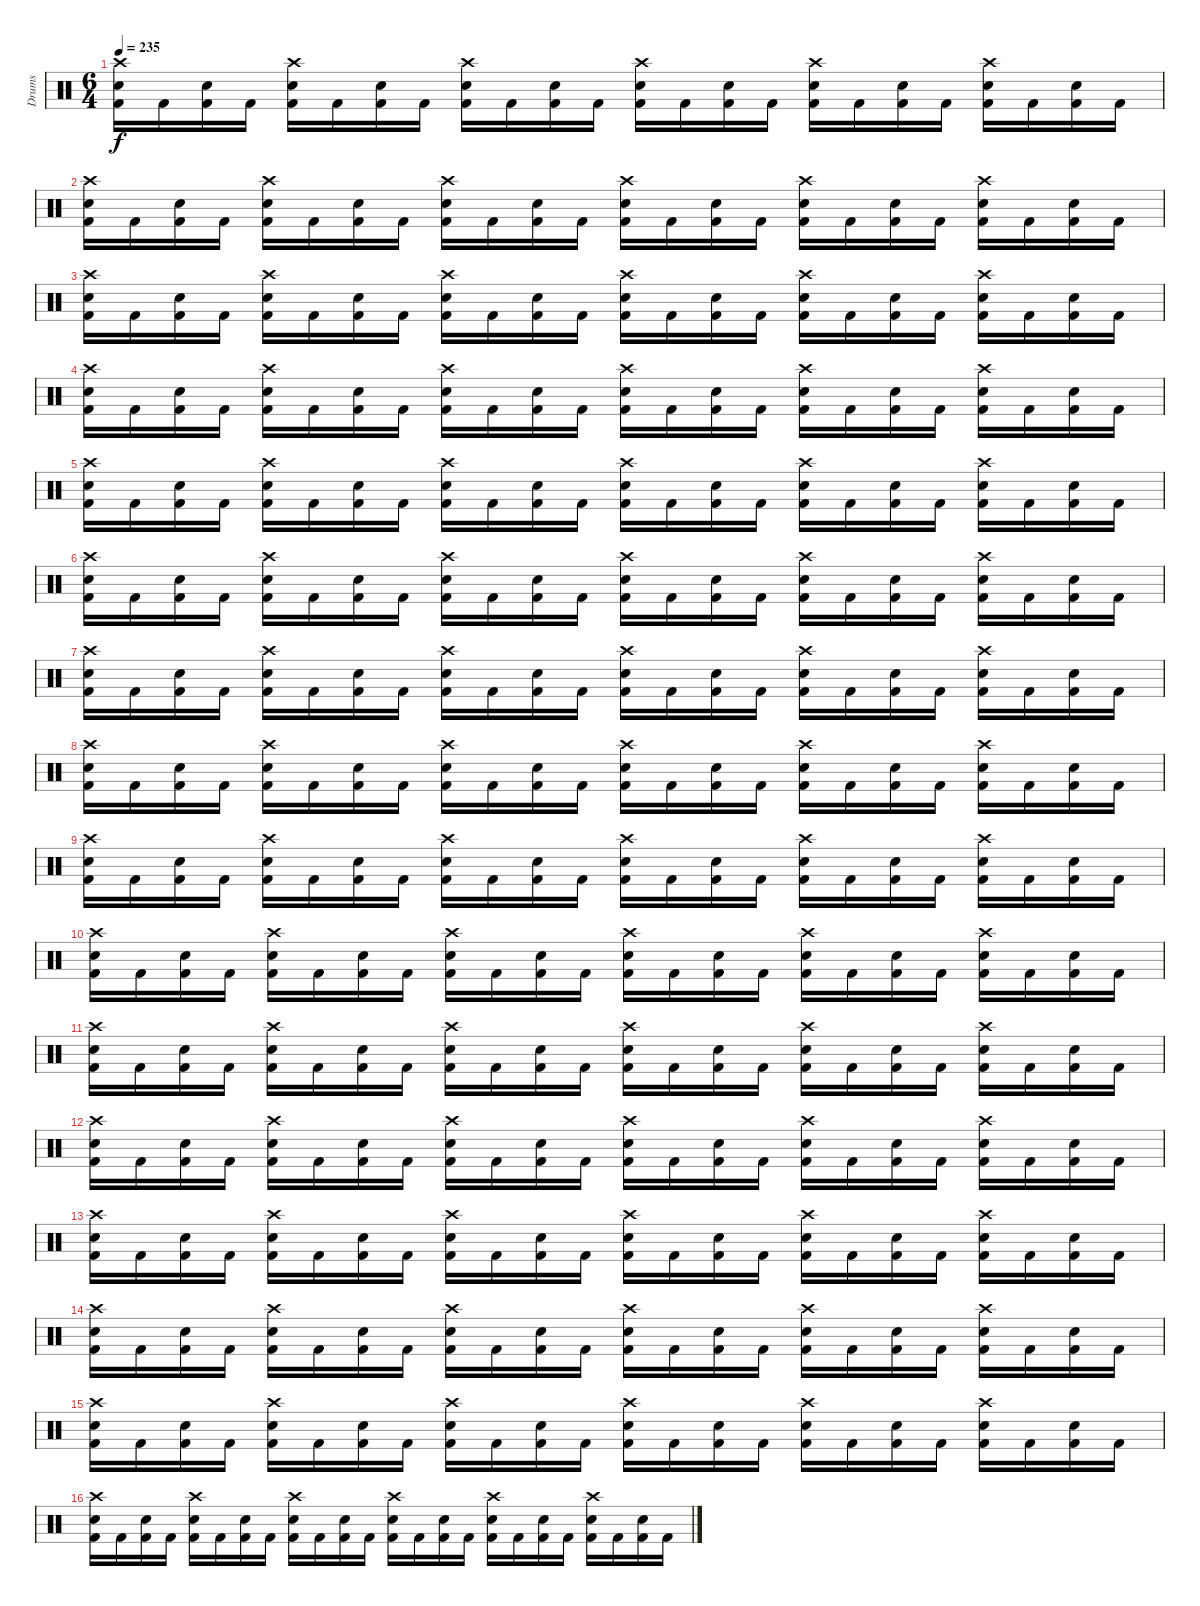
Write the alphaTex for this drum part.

\track ("Drums" "Drums") {instrument percussion}
\staff {score}
\articulation defaults
\ts (6 4)
\tempo 235
\clef neutral
\ks c
("Kick (hit) 2" "Snare (hit) 2" "Crash high (hit)").16{dy f} "Kick (hit) 2".16 ("Kick (hit) 2" "Snare (hit) 2").16 "Kick (hit) 2".16 ("Kick (hit) 2" "Snare (hit) 2" "Crash high (hit)").16 "Kick (hit) 2".16 ("Kick (hit) 2" "Snare (hit) 2").16 "Kick (hit) 2".16 ("Kick (hit) 2" "Snare (hit) 2" "Crash high (hit)").16 "Kick (hit) 2".16 ("Kick (hit) 2" "Snare (hit) 2").16 "Kick (hit) 2".16 ("Kick (hit) 2" "Snare (hit) 2" "Crash high (hit)").16 "Kick (hit) 2".16 ("Kick (hit) 2" "Snare (hit) 2").16 "Kick (hit) 2".16 ("Kick (hit) 2" "Snare (hit) 2" "Crash high (hit)").16 "Kick (hit) 2".16 ("Kick (hit) 2" "Snare (hit) 2").16 "Kick (hit) 2".16 ("Kick (hit) 2" "Snare (hit) 2" "Crash high (hit)").16 "Kick (hit) 2".16 ("Kick (hit) 2" "Snare (hit) 2").16 "Kick (hit) 2".16 |
("Kick (hit) 2" "Snare (hit) 2" "Crash high (hit)").16 "Kick (hit) 2".16 ("Kick (hit) 2" "Snare (hit) 2").16 "Kick (hit) 2".16 ("Kick (hit) 2" "Snare (hit) 2" "Crash high (hit)").16 "Kick (hit) 2".16 ("Kick (hit) 2" "Snare (hit) 2").16 "Kick (hit) 2".16 ("Kick (hit) 2" "Snare (hit) 2" "Crash high (hit)").16 "Kick (hit) 2".16 ("Kick (hit) 2" "Snare (hit) 2").16 "Kick (hit) 2".16 ("Kick (hit) 2" "Snare (hit) 2" "Crash high (hit)").16 "Kick (hit) 2".16 ("Kick (hit) 2" "Snare (hit) 2").16 "Kick (hit) 2".16 ("Kick (hit) 2" "Snare (hit) 2" "Crash high (hit)").16 "Kick (hit) 2".16 ("Kick (hit) 2" "Snare (hit) 2").16 "Kick (hit) 2".16 ("Kick (hit) 2" "Snare (hit) 2" "Crash high (hit)").16 "Kick (hit) 2".16 ("Kick (hit) 2" "Snare (hit) 2").16 "Kick (hit) 2".16 |
("Kick (hit) 2" "Snare (hit) 2" "Crash high (hit)").16 "Kick (hit) 2".16 ("Kick (hit) 2" "Snare (hit) 2").16 "Kick (hit) 2".16 ("Kick (hit) 2" "Snare (hit) 2" "Crash high (hit)").16 "Kick (hit) 2".16 ("Kick (hit) 2" "Snare (hit) 2").16 "Kick (hit) 2".16 ("Kick (hit) 2" "Snare (hit) 2" "Crash high (hit)").16 "Kick (hit) 2".16 ("Kick (hit) 2" "Snare (hit) 2").16 "Kick (hit) 2".16 ("Kick (hit) 2" "Snare (hit) 2" "Crash high (hit)").16 "Kick (hit) 2".16 ("Kick (hit) 2" "Snare (hit) 2").16 "Kick (hit) 2".16 ("Kick (hit) 2" "Snare (hit) 2" "Crash high (hit)").16 "Kick (hit) 2".16 ("Kick (hit) 2" "Snare (hit) 2").16 "Kick (hit) 2".16 ("Kick (hit) 2" "Snare (hit) 2" "Crash high (hit)").16 "Kick (hit) 2".16 ("Kick (hit) 2" "Snare (hit) 2").16 "Kick (hit) 2".16 |
("Kick (hit) 2" "Snare (hit) 2" "Crash high (hit)").16 "Kick (hit) 2".16 ("Kick (hit) 2" "Snare (hit) 2").16 "Kick (hit) 2".16 ("Kick (hit) 2" "Snare (hit) 2" "Crash high (hit)").16 "Kick (hit) 2".16 ("Kick (hit) 2" "Snare (hit) 2").16 "Kick (hit) 2".16 ("Kick (hit) 2" "Snare (hit) 2" "Crash high (hit)").16 "Kick (hit) 2".16 ("Kick (hit) 2" "Snare (hit) 2").16 "Kick (hit) 2".16 ("Kick (hit) 2" "Snare (hit) 2" "Crash high (hit)").16 "Kick (hit) 2".16 ("Kick (hit) 2" "Snare (hit) 2").16 "Kick (hit) 2".16 ("Kick (hit) 2" "Snare (hit) 2" "Crash high (hit)").16 "Kick (hit) 2".16 ("Kick (hit) 2" "Snare (hit) 2").16 "Kick (hit) 2".16 ("Kick (hit) 2" "Snare (hit) 2" "Crash high (hit)").16 "Kick (hit) 2".16 ("Kick (hit) 2" "Snare (hit) 2").16 "Kick (hit) 2".16 |
("Kick (hit) 2" "Snare (hit) 2" "Crash high (hit)").16 "Kick (hit) 2".16 ("Kick (hit) 2" "Snare (hit) 2").16 "Kick (hit) 2".16 ("Kick (hit) 2" "Snare (hit) 2" "Crash high (hit)").16 "Kick (hit) 2".16 ("Kick (hit) 2" "Snare (hit) 2").16 "Kick (hit) 2".16 ("Kick (hit) 2" "Snare (hit) 2" "Crash high (hit)").16 "Kick (hit) 2".16 ("Kick (hit) 2" "Snare (hit) 2").16 "Kick (hit) 2".16 ("Kick (hit) 2" "Snare (hit) 2" "Crash high (hit)").16 "Kick (hit) 2".16 ("Kick (hit) 2" "Snare (hit) 2").16 "Kick (hit) 2".16 ("Kick (hit) 2" "Snare (hit) 2" "Crash high (hit)").16 "Kick (hit) 2".16 ("Kick (hit) 2" "Snare (hit) 2").16 "Kick (hit) 2".16 ("Kick (hit) 2" "Snare (hit) 2" "Crash high (hit)").16 "Kick (hit) 2".16 ("Kick (hit) 2" "Snare (hit) 2").16 "Kick (hit) 2".16 |
("Kick (hit) 2" "Snare (hit) 2" "Crash high (hit)").16 "Kick (hit) 2".16 ("Kick (hit) 2" "Snare (hit) 2").16 "Kick (hit) 2".16 ("Kick (hit) 2" "Snare (hit) 2" "Crash high (hit)").16 "Kick (hit) 2".16 ("Kick (hit) 2" "Snare (hit) 2").16 "Kick (hit) 2".16 ("Kick (hit) 2" "Snare (hit) 2" "Crash high (hit)").16 "Kick (hit) 2".16 ("Kick (hit) 2" "Snare (hit) 2").16 "Kick (hit) 2".16 ("Kick (hit) 2" "Snare (hit) 2" "Crash high (hit)").16 "Kick (hit) 2".16 ("Kick (hit) 2" "Snare (hit) 2").16 "Kick (hit) 2".16 ("Kick (hit) 2" "Snare (hit) 2" "Crash high (hit)").16 "Kick (hit) 2".16 ("Kick (hit) 2" "Snare (hit) 2").16 "Kick (hit) 2".16 ("Kick (hit) 2" "Snare (hit) 2" "Crash high (hit)").16 "Kick (hit) 2".16 ("Kick (hit) 2" "Snare (hit) 2").16 "Kick (hit) 2".16 |
("Kick (hit) 2" "Snare (hit) 2" "Crash high (hit)").16 "Kick (hit) 2".16 ("Kick (hit) 2" "Snare (hit) 2").16 "Kick (hit) 2".16 ("Kick (hit) 2" "Snare (hit) 2" "Crash high (hit)").16 "Kick (hit) 2".16 ("Kick (hit) 2" "Snare (hit) 2").16 "Kick (hit) 2".16 ("Kick (hit) 2" "Snare (hit) 2" "Crash high (hit)").16 "Kick (hit) 2".16 ("Kick (hit) 2" "Snare (hit) 2").16 "Kick (hit) 2".16 ("Kick (hit) 2" "Snare (hit) 2" "Crash high (hit)").16 "Kick (hit) 2".16 ("Kick (hit) 2" "Snare (hit) 2").16 "Kick (hit) 2".16 ("Kick (hit) 2" "Snare (hit) 2" "Crash high (hit)").16 "Kick (hit) 2".16 ("Kick (hit) 2" "Snare (hit) 2").16 "Kick (hit) 2".16 ("Kick (hit) 2" "Snare (hit) 2" "Crash high (hit)").16 "Kick (hit) 2".16 ("Kick (hit) 2" "Snare (hit) 2").16 "Kick (hit) 2".16 |
("Kick (hit) 2" "Snare (hit) 2" "Crash high (hit)").16 "Kick (hit) 2".16 ("Kick (hit) 2" "Snare (hit) 2").16 "Kick (hit) 2".16 ("Kick (hit) 2" "Snare (hit) 2" "Crash high (hit)").16 "Kick (hit) 2".16 ("Kick (hit) 2" "Snare (hit) 2").16 "Kick (hit) 2".16 ("Kick (hit) 2" "Snare (hit) 2" "Crash high (hit)").16 "Kick (hit) 2".16 ("Kick (hit) 2" "Snare (hit) 2").16 "Kick (hit) 2".16 ("Kick (hit) 2" "Snare (hit) 2" "Crash high (hit)").16 "Kick (hit) 2".16 ("Kick (hit) 2" "Snare (hit) 2").16 "Kick (hit) 2".16 ("Kick (hit) 2" "Snare (hit) 2" "Crash high (hit)").16 "Kick (hit) 2".16 ("Kick (hit) 2" "Snare (hit) 2").16 "Kick (hit) 2".16 ("Kick (hit) 2" "Snare (hit) 2" "Crash high (hit)").16 "Kick (hit) 2".16 ("Kick (hit) 2" "Snare (hit) 2").16 "Kick (hit) 2".16 |
("Kick (hit) 2" "Snare (hit) 2" "Crash high (hit)").16 "Kick (hit) 2".16 ("Kick (hit) 2" "Snare (hit) 2").16 "Kick (hit) 2".16 ("Kick (hit) 2" "Snare (hit) 2" "Crash high (hit)").16 "Kick (hit) 2".16 ("Kick (hit) 2" "Snare (hit) 2").16 "Kick (hit) 2".16 ("Kick (hit) 2" "Snare (hit) 2" "Crash high (hit)").16 "Kick (hit) 2".16 ("Kick (hit) 2" "Snare (hit) 2").16 "Kick (hit) 2".16 ("Kick (hit) 2" "Snare (hit) 2" "Crash high (hit)").16 "Kick (hit) 2".16 ("Kick (hit) 2" "Snare (hit) 2").16 "Kick (hit) 2".16 ("Kick (hit) 2" "Snare (hit) 2" "Crash high (hit)").16 "Kick (hit) 2".16 ("Kick (hit) 2" "Snare (hit) 2").16 "Kick (hit) 2".16 ("Kick (hit) 2" "Snare (hit) 2" "Crash high (hit)").16 "Kick (hit) 2".16 ("Kick (hit) 2" "Snare (hit) 2").16 "Kick (hit) 2".16 |
("Kick (hit) 2" "Snare (hit) 2" "Crash high (hit)").16 "Kick (hit) 2".16 ("Kick (hit) 2" "Snare (hit) 2").16 "Kick (hit) 2".16 ("Kick (hit) 2" "Snare (hit) 2" "Crash high (hit)").16 "Kick (hit) 2".16 ("Kick (hit) 2" "Snare (hit) 2").16 "Kick (hit) 2".16 ("Kick (hit) 2" "Snare (hit) 2" "Crash high (hit)").16 "Kick (hit) 2".16 ("Kick (hit) 2" "Snare (hit) 2").16 "Kick (hit) 2".16 ("Kick (hit) 2" "Snare (hit) 2" "Crash high (hit)").16 "Kick (hit) 2".16 ("Kick (hit) 2" "Snare (hit) 2").16 "Kick (hit) 2".16 ("Kick (hit) 2" "Snare (hit) 2" "Crash high (hit)").16 "Kick (hit) 2".16 ("Kick (hit) 2" "Snare (hit) 2").16 "Kick (hit) 2".16 ("Kick (hit) 2" "Snare (hit) 2" "Crash high (hit)").16 "Kick (hit) 2".16 ("Kick (hit) 2" "Snare (hit) 2").16 "Kick (hit) 2".16 |
("Kick (hit) 2" "Snare (hit) 2" "Crash high (hit)").16 "Kick (hit) 2".16 ("Kick (hit) 2" "Snare (hit) 2").16 "Kick (hit) 2".16 ("Kick (hit) 2" "Snare (hit) 2" "Crash high (hit)").16 "Kick (hit) 2".16 ("Kick (hit) 2" "Snare (hit) 2").16 "Kick (hit) 2".16 ("Kick (hit) 2" "Snare (hit) 2" "Crash high (hit)").16 "Kick (hit) 2".16 ("Kick (hit) 2" "Snare (hit) 2").16 "Kick (hit) 2".16 ("Kick (hit) 2" "Snare (hit) 2" "Crash high (hit)").16 "Kick (hit) 2".16 ("Kick (hit) 2" "Snare (hit) 2").16 "Kick (hit) 2".16 ("Kick (hit) 2" "Snare (hit) 2" "Crash high (hit)").16 "Kick (hit) 2".16 ("Kick (hit) 2" "Snare (hit) 2").16 "Kick (hit) 2".16 ("Kick (hit) 2" "Snare (hit) 2" "Crash high (hit)").16 "Kick (hit) 2".16 ("Kick (hit) 2" "Snare (hit) 2").16 "Kick (hit) 2".16 |
("Kick (hit) 2" "Snare (hit) 2" "Crash high (hit)").16 "Kick (hit) 2".16 ("Kick (hit) 2" "Snare (hit) 2").16 "Kick (hit) 2".16 ("Kick (hit) 2" "Snare (hit) 2" "Crash high (hit)").16 "Kick (hit) 2".16 ("Kick (hit) 2" "Snare (hit) 2").16 "Kick (hit) 2".16 ("Kick (hit) 2" "Snare (hit) 2" "Crash high (hit)").16 "Kick (hit) 2".16 ("Kick (hit) 2" "Snare (hit) 2").16 "Kick (hit) 2".16 ("Kick (hit) 2" "Snare (hit) 2" "Crash high (hit)").16 "Kick (hit) 2".16 ("Kick (hit) 2" "Snare (hit) 2").16 "Kick (hit) 2".16 ("Kick (hit) 2" "Snare (hit) 2" "Crash high (hit)").16 "Kick (hit) 2".16 ("Kick (hit) 2" "Snare (hit) 2").16 "Kick (hit) 2".16 ("Kick (hit) 2" "Snare (hit) 2" "Crash high (hit)").16 "Kick (hit) 2".16 ("Kick (hit) 2" "Snare (hit) 2").16 "Kick (hit) 2".16 |
("Kick (hit) 2" "Snare (hit) 2" "Crash high (hit)").16 "Kick (hit) 2".16 ("Kick (hit) 2" "Snare (hit) 2").16 "Kick (hit) 2".16 ("Kick (hit) 2" "Snare (hit) 2" "Crash high (hit)").16 "Kick (hit) 2".16 ("Kick (hit) 2" "Snare (hit) 2").16 "Kick (hit) 2".16 ("Kick (hit) 2" "Snare (hit) 2" "Crash high (hit)").16 "Kick (hit) 2".16 ("Kick (hit) 2" "Snare (hit) 2").16 "Kick (hit) 2".16 ("Kick (hit) 2" "Snare (hit) 2" "Crash high (hit)").16 "Kick (hit) 2".16 ("Kick (hit) 2" "Snare (hit) 2").16 "Kick (hit) 2".16 ("Kick (hit) 2" "Snare (hit) 2" "Crash high (hit)").16 "Kick (hit) 2".16 ("Kick (hit) 2" "Snare (hit) 2").16 "Kick (hit) 2".16 ("Kick (hit) 2" "Snare (hit) 2" "Crash high (hit)").16 "Kick (hit) 2".16 ("Kick (hit) 2" "Snare (hit) 2").16 "Kick (hit) 2".16 |
("Kick (hit) 2" "Snare (hit) 2" "Crash high (hit)").16 "Kick (hit) 2".16 ("Kick (hit) 2" "Snare (hit) 2").16 "Kick (hit) 2".16 ("Kick (hit) 2" "Snare (hit) 2" "Crash high (hit)").16 "Kick (hit) 2".16 ("Kick (hit) 2" "Snare (hit) 2").16 "Kick (hit) 2".16 ("Kick (hit) 2" "Snare (hit) 2" "Crash high (hit)").16 "Kick (hit) 2".16 ("Kick (hit) 2" "Snare (hit) 2").16 "Kick (hit) 2".16 ("Kick (hit) 2" "Snare (hit) 2" "Crash high (hit)").16 "Kick (hit) 2".16 ("Kick (hit) 2" "Snare (hit) 2").16 "Kick (hit) 2".16 ("Kick (hit) 2" "Snare (hit) 2" "Crash high (hit)").16 "Kick (hit) 2".16 ("Kick (hit) 2" "Snare (hit) 2").16 "Kick (hit) 2".16 ("Kick (hit) 2" "Snare (hit) 2" "Crash high (hit)").16 "Kick (hit) 2".16 ("Kick (hit) 2" "Snare (hit) 2").16 "Kick (hit) 2".16 |
("Kick (hit) 2" "Snare (hit) 2" "Crash high (hit)").16 "Kick (hit) 2".16 ("Kick (hit) 2" "Snare (hit) 2").16 "Kick (hit) 2".16 ("Kick (hit) 2" "Snare (hit) 2" "Crash high (hit)").16 "Kick (hit) 2".16 ("Kick (hit) 2" "Snare (hit) 2").16 "Kick (hit) 2".16 ("Kick (hit) 2" "Snare (hit) 2" "Crash high (hit)").16 "Kick (hit) 2".16 ("Kick (hit) 2" "Snare (hit) 2").16 "Kick (hit) 2".16 ("Kick (hit) 2" "Snare (hit) 2" "Crash high (hit)").16 "Kick (hit) 2".16 ("Kick (hit) 2" "Snare (hit) 2").16 "Kick (hit) 2".16 ("Kick (hit) 2" "Snare (hit) 2" "Crash high (hit)").16 "Kick (hit) 2".16 ("Kick (hit) 2" "Snare (hit) 2").16 "Kick (hit) 2".16 ("Kick (hit) 2" "Snare (hit) 2" "Crash high (hit)").16 "Kick (hit) 2".16 ("Kick (hit) 2" "Snare (hit) 2").16 "Kick (hit) 2".16 |
("Kick (hit) 2" "Snare (hit) 2" "Crash high (hit)").16 "Kick (hit) 2".16 ("Kick (hit) 2" "Snare (hit) 2").16 "Kick (hit) 2".16 ("Kick (hit) 2" "Snare (hit) 2" "Crash high (hit)").16 "Kick (hit) 2".16 ("Kick (hit) 2" "Snare (hit) 2").16 "Kick (hit) 2".16 ("Kick (hit) 2" "Snare (hit) 2" "Crash high (hit)").16 "Kick (hit) 2".16 ("Kick (hit) 2" "Snare (hit) 2").16 "Kick (hit) 2".16 ("Kick (hit) 2" "Snare (hit) 2" "Crash high (hit)").16 "Kick (hit) 2".16 ("Kick (hit) 2" "Snare (hit) 2").16 "Kick (hit) 2".16 ("Kick (hit) 2" "Snare (hit) 2" "Crash high (hit)").16 "Kick (hit) 2".16 ("Kick (hit) 2" "Snare (hit) 2").16 "Kick (hit) 2".16 ("Kick (hit) 2" "Snare (hit) 2" "Crash high (hit)").16 "Kick (hit) 2".16 ("Kick (hit) 2" "Snare (hit) 2").16 "Kick (hit) 2".16
